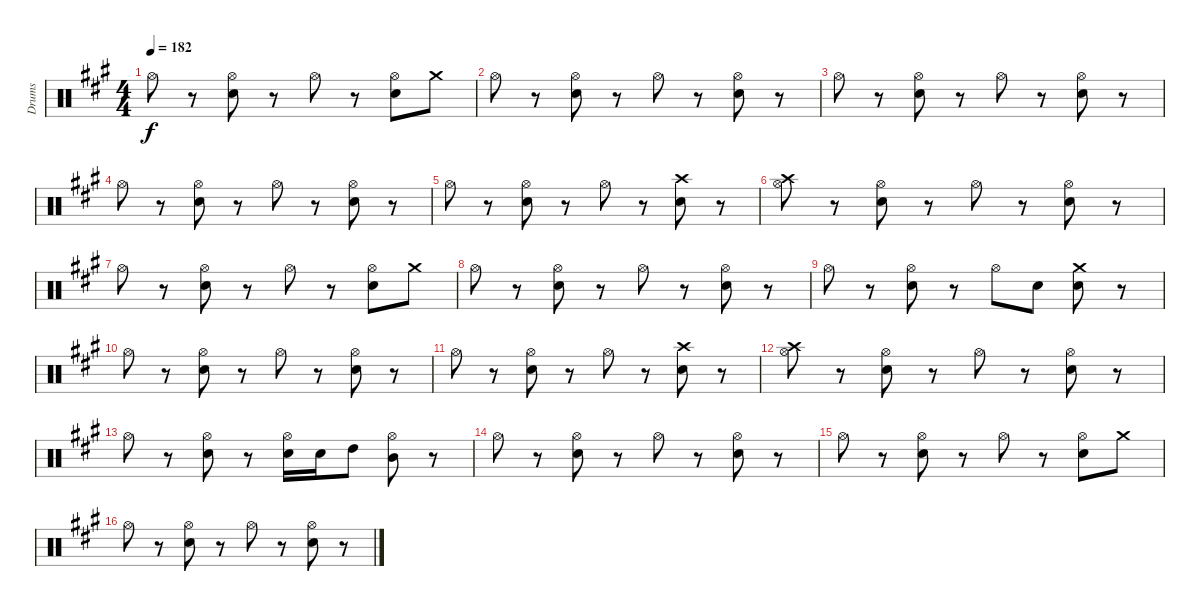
\track ("Drums" "Drums") {instrument percussion}
\staff {score}
\articulation defaults
\ts (4 4)
\tempo 182
\clef neutral
\ks f#minor "Hi-Hat (open)".8{dy f}
r.8 ("Hi-Hat (open)" "Snare (hit) 2").8 r.8 "Hi-Hat (open)".8 r.8 ("Hi-Hat (open)" "Snare (hit) 2").8 "Crash medium (hit)".8 |
"Hi-Hat (open)".8 r.8 ("Hi-Hat (open)" "Snare (hit) 2").8 r.8 "Hi-Hat (open)".8 r.8 ("Hi-Hat (open)" "Snare (hit) 2").8 r.8 |
"Hi-Hat (open)".8 r.8 ("Hi-Hat (open)" "Snare (hit) 2").8 r.8 "Hi-Hat (open)".8 r.8 ("Hi-Hat (open)" "Snare (hit) 2").8 r.8 |
"Hi-Hat (open)".8 r.8 ("Hi-Hat (open)" "Snare (hit) 2").8 r.8 "Hi-Hat (open)".8 r.8 ("Hi-Hat (open)" "Snare (hit) 2").8 r.8 |
"Hi-Hat (open)".8 r.8 ("Hi-Hat (open)" "Snare (hit) 2").8 r.8 "Hi-Hat (open)".8 r.8 ("Crash high (hit)" "Snare (hit) 2").8 r.8 |
("Hi-Hat (open)" "Crash high (hit)").8 r.8 ("Hi-Hat (open)" "Snare (hit) 2").8 r.8 "Hi-Hat (open)".8 r.8 ("Hi-Hat (open)" "Snare (hit) 2").8 r.8 |
"Hi-Hat (open)".8 r.8 ("Hi-Hat (open)" "Snare (hit) 2").8 r.8 "Hi-Hat (open)".8 r.8 ("Hi-Hat (open)" "Snare (hit) 2").8 "Crash medium (hit)".8 |
"Hi-Hat (open)".8 r.8 ("Hi-Hat (open)" "Snare (hit) 2").8 r.8 "Hi-Hat (open)".8 r.8 ("Hi-Hat (open)" "Snare (hit) 2").8 r.8 |
"Hi-Hat (open)".8 r.8 ("Hi-Hat (open)" "Snare (hit) 2").8 r.8 "Hi-Hat (open)".8 "Snare (hit) 2".8 ("Crash medium (hit)" "Snare (hit) 2").8 r.8 |
"Hi-Hat (open)".8 r.8 ("Hi-Hat (open)" "Snare (hit) 2").8 r.8 "Hi-Hat (open)".8 r.8 ("Hi-Hat (open)" "Snare (hit) 2").8 r.8 |
"Hi-Hat (open)".8 r.8 ("Hi-Hat (open)" "Snare (hit) 2").8 r.8 "Hi-Hat (open)".8 r.8 ("Crash high (hit)" "Snare (hit) 2").8 r.8 |
("Hi-Hat (open)" "Crash high (hit)").8 r.8 ("Hi-Hat (open)" "Snare (hit) 2").8 r.8 "Hi-Hat (open)".8 r.8 ("Hi-Hat (open)" "Snare (hit) 2").8 r.8 |
"Hi-Hat (open)".8 r.8 ("Hi-Hat (open)" "Snare (hit) 2").8 r.8 ("Hi-Hat (open)" "Snare (hit) 2").16 "Snare (hit) 2".16 "High Tom (hit)".8 ("Hi-Hat (open)" "Mid Tom (hit)").8 r.8 |
"Hi-Hat (open)".8 r.8 ("Hi-Hat (open)" "Snare (hit) 2").8 r.8 "Hi-Hat (open)".8 r.8 ("Hi-Hat (open)" "Snare (hit) 2").8 r.8 |
"Hi-Hat (open)".8 r.8 ("Hi-Hat (open)" "Snare (hit) 2").8 r.8 "Hi-Hat (open)".8 r.8 ("Hi-Hat (open)" "Snare (hit) 2").8 "Crash medium (hit)".8 |
"Hi-Hat (open)".8 r.8 ("Hi-Hat (open)" "Snare (hit) 2").8 r.8 "Hi-Hat (open)".8 r.8 ("Hi-Hat (open)" "Snare (hit) 2").8 r.8
